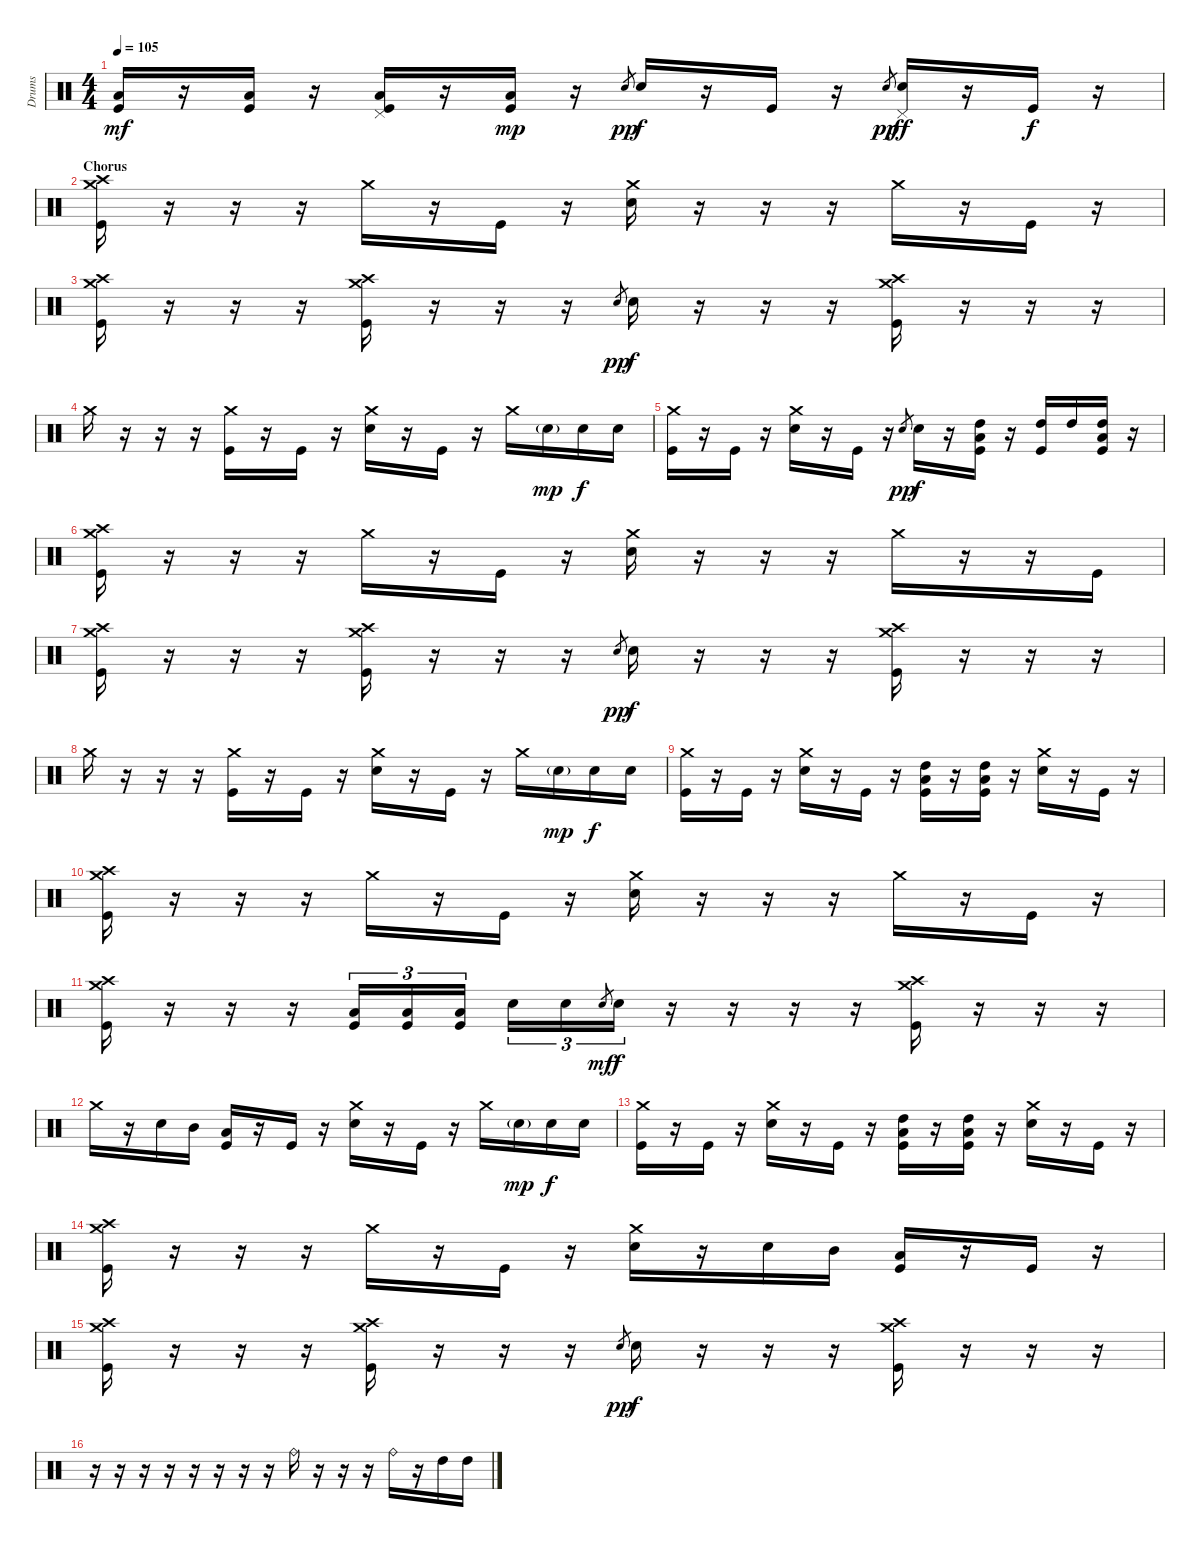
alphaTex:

\track ("Drums" "Drums") {instrument percussion}
\staff {score}
\articulation defaults
\ts (4 4)
\tempo 105
\clef neutral
\ks c
("Low Tom (hit)" "Kick (hit)").16{dy mf} r.16 ("Low Tom (hit)" "Kick (hit)").16 r.16 ("Pedal Hi-Hat (hit)" "Low Tom (hit)" "Kick (hit)").16 r.16 ("Low Tom (hit)" "Kick (hit)").16{dy mp} r.16 "Snare (hit) 2".8{gr dy pp} "Snare (hit) 2".16{dy f} r.16 "Kick (hit)".16 r.16 "Snare (hit) 2".8{gr dy pp} ("Pedal Hi-Hat (hit)" "Snare (hit) 2").16{dy ff} r.16 "Kick (hit)".16{dy f} r.16 |
\section ("" "Chorus")
("Crash high (hit)" "Crash medium (hit)" "Kick (hit)").16 r.16 r.16 r.16 "Crash medium (hit)".16 r.16 "Kick (hit)".16 r.16 ("Crash medium (hit)" "Snare (hit) 2").16 r.16 r.16 r.16 "Crash medium (hit)".16 r.16 "Kick (hit)".16 r.16 |
("Crash high (hit)" "Crash medium (hit)" "Kick (hit)").16 r.16 r.16 r.16 ("Crash high (hit)" "Crash medium (hit)" "Kick (hit)").16 r.16 r.16 r.16 "Snare (hit) 2".8{gr dy pp} "Snare (hit) 2".16{dy f} r.16 r.16 r.16 ("Crash high (hit)" "Crash medium (hit)" "Kick (hit)").16 r.16 r.16 r.16 |
"Crash medium (hit)".16 r.16 r.16 r.16 ("Crash medium (hit)" "Kick (hit)").16 r.16 "Kick (hit)".16 r.16 ("Crash medium (hit)" "Snare (hit) 2").16 r.16 "Kick (hit)".16 r.16 "Crash medium (hit)".16 "Snare (hit) 2"{g}.16{dy mp} "Snare (hit) 2".16{dy f} "Snare (hit) 2".16 |
("Crash medium (hit)" "Kick (hit)").16 r.16 "Kick (hit)".16 r.16 ("Crash medium (hit)" "Snare (hit) 2").16 r.16 "Kick (hit)".16 r.16 "Snare (hit) 2".8{gr dy pp} "Snare (hit) 2".16{dy f} r.16 ("High Tom (hit)" "Low Tom (hit)" "Kick (hit)").16 r.16 ("High Tom (hit)" "Kick (hit)").16 "High Tom (hit)".16 ("High Tom (hit)" "Low Tom (hit)" "Kick (hit)").16 r.16 |
("Crash high (hit)" "Crash medium (hit)" "Kick (hit)").16 r.16 r.16 r.16 "Crash medium (hit)".16 r.16 "Kick (hit)".16 r.16 ("Crash medium (hit)" "Snare (hit) 2").16 r.16 r.16 r.16 "Crash medium (hit)".16 r.16 r.16 "Kick (hit)".16 |
("Crash high (hit)" "Crash medium (hit)" "Kick (hit)").16 r.16 r.16 r.16 ("Crash high (hit)" "Crash medium (hit)" "Kick (hit)").16 r.16 r.16 r.16 "Snare (hit) 2".8{gr dy pp} "Snare (hit) 2".16{dy f} r.16 r.16 r.16 ("Crash high (hit)" "Crash medium (hit)" "Kick (hit)").16 r.16 r.16 r.16 |
"Crash medium (hit)".16 r.16 r.16 r.16 ("Crash medium (hit)" "Kick (hit)").16 r.16 "Kick (hit)".16 r.16 ("Crash medium (hit)" "Snare (hit) 2").16 r.16 "Kick (hit)".16 r.16 "Crash medium (hit)".16 "Snare (hit) 2"{g}.16{dy mp} "Snare (hit) 2".16{dy f} "Snare (hit) 2".16 |
("Crash medium (hit)" "Kick (hit)").16 r.16 "Kick (hit)".16 r.16 ("Crash medium (hit)" "Snare (hit) 2").16 r.16 "Kick (hit)".16 r.16 ("High Tom (hit)" "Low Tom (hit)" "Kick (hit)").16 r.16 ("High Tom (hit)" "Low Tom (hit)" "Kick (hit)").16 r.16 ("Crash medium (hit)" "Snare (hit) 2").16 r.16 "Kick (hit)".16 r.16 |
("Crash high (hit)" "Crash medium (hit)" "Kick (hit)").16 r.16 r.16 r.16 "Crash medium (hit)".16 r.16 "Kick (hit)".16 r.16 ("Crash medium (hit)" "Snare (hit) 2").16 r.16 r.16 r.16 "Crash medium (hit)".16 r.16 "Kick (hit)".16 r.16 |
("Crash high (hit)" "Crash medium (hit)" "Kick (hit)").16 r.16 r.16 r.16 ("Low Tom (hit)" "Kick (hit)").16{tu (3 2)} ("Low Tom (hit)" "Kick (hit)").16{tu (3 2)} ("Low Tom (hit)" "Kick (hit)").16{tu (3 2)} "Snare (hit) 2".16{tu (3 2)} "Snare (hit) 2".16{tu (3 2)} "Snare (hit) 2".8{gr dy mf} "Snare (hit) 2".16{tu (3 2) dy f} r.16 r.16 r.16 r.16 ("Crash high (hit)" "Crash medium (hit)" "Kick (hit)").16 r.16 r.16 r.16 |
"Crash medium (hit)".16 r.16 "Snare (hit) 2".16 "Mid Tom (hit)".16 ("Low Tom (hit)" "Kick (hit)").16 r.16 "Kick (hit)".16 r.16 ("Crash medium (hit)" "Snare (hit) 2").16 r.16 "Kick (hit)".16 r.16 "Crash medium (hit)".16 "Snare (hit) 2"{g}.16{dy mp} "Snare (hit) 2".16{dy f} "Snare (hit) 2".16 |
("Crash medium (hit)" "Kick (hit)").16 r.16 "Kick (hit)".16 r.16 ("Crash medium (hit)" "Snare (hit) 2").16 r.16 "Kick (hit)".16 r.16 ("High Tom (hit)" "Low Tom (hit)" "Kick (hit)").16 r.16 ("High Tom (hit)" "Low Tom (hit)" "Kick (hit)").16 r.16 ("Crash medium (hit)" "Snare (hit) 2").16 r.16 "Kick (hit)".16 r.16 |
("Crash high (hit)" "Crash medium (hit)" "Kick (hit)").16 r.16 r.16 r.16 "Crash medium (hit)".16 r.16 "Kick (hit)".16 r.16 ("Crash medium (hit)" "Snare (hit) 2").16 r.16 "Snare (hit) 2".16 "Mid Tom (hit)".16 ("Low Tom (hit)" "Kick (hit)").16 r.16 "Kick (hit)".16 r.16 |
("Crash high (hit)" "Crash medium (hit)" "Kick (hit)").16 r.16 r.16 r.16 ("Crash high (hit)" "Crash medium (hit)" "Kick (hit)").16 r.16 r.16 r.16 "Snare (hit) 2".8{gr dy pp} "Snare (hit) 2".16{dy f} r.16 r.16 r.16 ("Crash high (hit)" "Crash medium (hit)" "Kick (hit)").16 r.16 r.16 r.16 |
r.16 r.16 r.16 r.16 r.16 r.16 r.16 r.16 "Ride (bell)".16 r.16 r.16 r.16 "Ride (bell)".16 r.16 "High Tom (hit)".16 "High Tom (hit)".16
